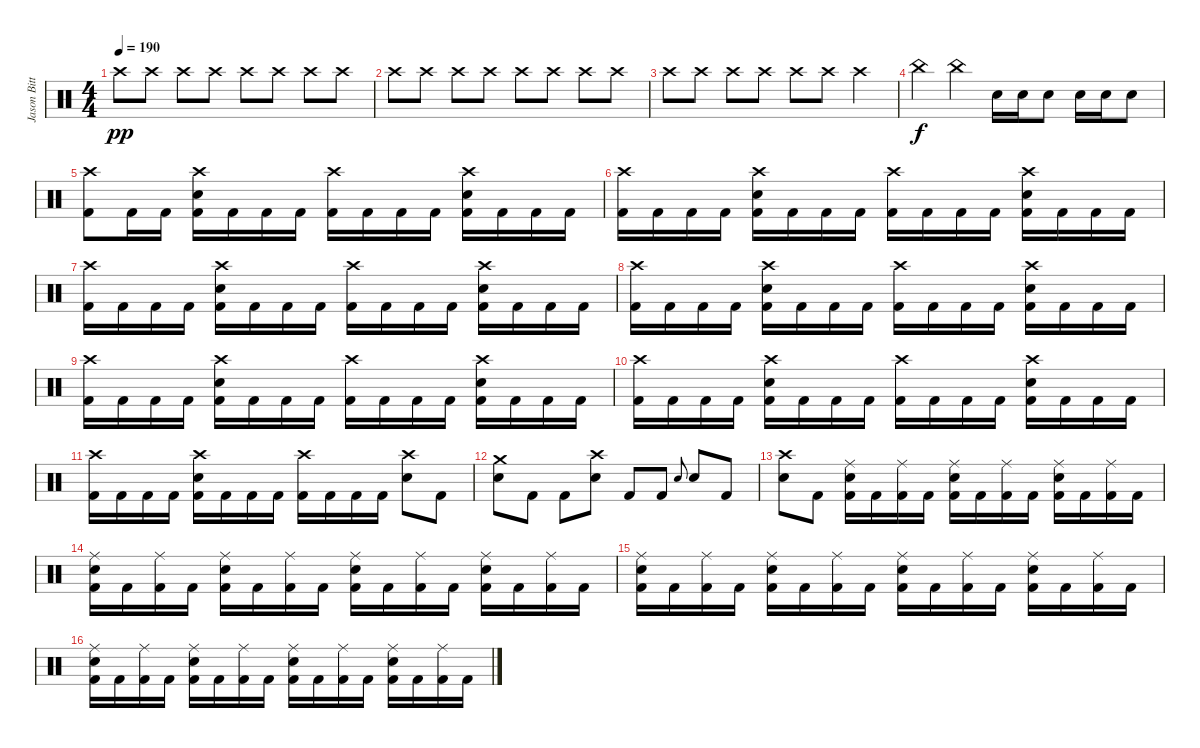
\track ("Jason Bittner" "Jason Bitt") {instrument percussion}
\staff {score}
\articulation defaults
\ts (4 4)
\tempo 190
\clef neutral
\ks c "Crash high (hit)".8{dy pp} "Crash high (hit)".8 "Crash high (hit)".8 "Crash high (hit)".8 "Crash high (hit)".8 "Crash high (hit)".8 "Crash high (hit)".8 "Crash high (hit)".8
|
"Crash high (hit)".8 "Crash high (hit)".8 "Crash high (hit)".8 "Crash high (hit)".8 "Crash high (hit)".8 "Crash high (hit)".8 "Crash high (hit)".8 "Crash high (hit)".8 |
"Crash high (hit)".8 "Crash high (hit)".8 "Crash high (hit)".8 "Crash high (hit)".8 "Crash high (hit)".8 "Crash high (hit)".8 "Crash high (hit)".4 |
"China (hit)".4{dy f} "China (hit)".4 "Electric Snare (hit)".16 "Electric Snare (hit)".16 "Electric Snare (hit)".8 "Electric Snare (hit)".16 "Electric Snare (hit)".16 "Electric Snare (hit)".8 |
("Crash high (hit)" "Kick (hit) 2").8 "Kick (hit) 2".16 "Kick (hit) 2".16 ("Crash high (hit)" "Electric Snare (hit)" "Kick (hit) 2").16 "Kick (hit) 2".16 "Kick (hit) 2".16 "Kick (hit) 2".16 ("Crash high (hit)" "Kick (hit) 2").16 "Kick (hit) 2".16 "Kick (hit) 2".16 "Kick (hit) 2".16 ("Crash high (hit)" "Electric Snare (hit)" "Kick (hit) 2").16 "Kick (hit) 2".16 "Kick (hit) 2".16 "Kick (hit) 2".16 |
("Crash high (hit)" "Kick (hit) 2").16 "Kick (hit) 2".16 "Kick (hit) 2".16 "Kick (hit) 2".16 ("Crash high (hit)" "Electric Snare (hit)" "Kick (hit) 2").16 "Kick (hit) 2".16 "Kick (hit) 2".16 "Kick (hit) 2".16 ("Crash high (hit)" "Kick (hit) 2").16 "Kick (hit) 2".16 "Kick (hit) 2".16 "Kick (hit) 2".16 ("Crash high (hit)" "Electric Snare (hit)" "Kick (hit) 2").16 "Kick (hit) 2".16 "Kick (hit) 2".16 "Kick (hit) 2".16 |
("Crash high (hit)" "Kick (hit) 2").16 "Kick (hit) 2".16 "Kick (hit) 2".16 "Kick (hit) 2".16 ("Crash high (hit)" "Electric Snare (hit)" "Kick (hit) 2").16 "Kick (hit) 2".16 "Kick (hit) 2".16 "Kick (hit) 2".16 ("Crash high (hit)" "Kick (hit) 2").16 "Kick (hit) 2".16 "Kick (hit) 2".16 "Kick (hit) 2".16 ("Crash high (hit)" "Electric Snare (hit)" "Kick (hit) 2").16 "Kick (hit) 2".16 "Kick (hit) 2".16 "Kick (hit) 2".16 |
("Crash high (hit)" "Kick (hit) 2").16 "Kick (hit) 2".16 "Kick (hit) 2".16 "Kick (hit) 2".16 ("Crash high (hit)" "Electric Snare (hit)" "Kick (hit) 2").16 "Kick (hit) 2".16 "Kick (hit) 2".16 "Kick (hit) 2".16 ("Crash high (hit)" "Kick (hit) 2").16 "Kick (hit) 2".16 "Kick (hit) 2".16 "Kick (hit) 2".16 ("Crash high (hit)" "Electric Snare (hit)" "Kick (hit) 2").16 "Kick (hit) 2".16 "Kick (hit) 2".16 "Kick (hit) 2".16 |
("Crash high (hit)" "Kick (hit) 2").16 "Kick (hit) 2".16 "Kick (hit) 2".16 "Kick (hit) 2".16 ("Crash high (hit)" "Electric Snare (hit)" "Kick (hit) 2").16 "Kick (hit) 2".16 "Kick (hit) 2".16 "Kick (hit) 2".16 ("Crash high (hit)" "Kick (hit) 2").16 "Kick (hit) 2".16 "Kick (hit) 2".16 "Kick (hit) 2".16 ("Crash high (hit)" "Electric Snare (hit)" "Kick (hit) 2").16 "Kick (hit) 2".16 "Kick (hit) 2".16 "Kick (hit) 2".16 |
("Crash high (hit)" "Kick (hit) 2").16 "Kick (hit) 2".16 "Kick (hit) 2".16 "Kick (hit) 2".16 ("Crash high (hit)" "Electric Snare (hit)" "Kick (hit) 2").16 "Kick (hit) 2".16 "Kick (hit) 2".16 "Kick (hit) 2".16 ("Crash high (hit)" "Kick (hit) 2").16 "Kick (hit) 2".16 "Kick (hit) 2".16 "Kick (hit) 2".16 ("Crash high (hit)" "Electric Snare (hit)" "Kick (hit) 2").16 "Kick (hit) 2".16 "Kick (hit) 2".16 "Kick (hit) 2".16 |
("Crash high (hit)" "Kick (hit) 2").16 "Kick (hit) 2".16 "Kick (hit) 2".16 "Kick (hit) 2".16 ("Crash high (hit)" "Electric Snare (hit)" "Kick (hit) 2").16 "Kick (hit) 2".16 "Kick (hit) 2".16 "Kick (hit) 2".16 ("Crash high (hit)" "Kick (hit) 2").16 "Kick (hit) 2".16 "Kick (hit) 2".16 "Kick (hit) 2".16 ("Crash high (hit)" "Electric Snare (hit)").8 "Kick (hit) 2".8 |
("Crash medium (hit)" "Electric Snare (hit)").8 "Kick (hit) 2".8 "Kick (hit) 2".8 ("Crash high (hit)" "Electric Snare (hit)").8 "Kick (hit) 2".8 "Kick (hit) 2".8 "Electric Snare (hit)".8{gr onbeat} "Electric Snare (hit)".8 "Kick (hit) 2".8 |
("Crash high (hit)" "Electric Snare (hit)").8 "Kick (hit) 2".8 ("Ride (middle)" "Electric Snare (hit)" "Kick (hit) 2").16 "Kick (hit) 2".16 ("Ride (middle)" "Kick (hit) 2").16 "Kick (hit) 2".16 ("Ride (middle)" "Electric Snare (hit)" "Kick (hit) 2").16 "Kick (hit) 2".16 ("Ride (middle)" "Kick (hit) 2").16 "Kick (hit) 2".16 ("Ride (middle)" "Electric Snare (hit)" "Kick (hit) 2").16 "Kick (hit) 2".16 ("Ride (middle)" "Kick (hit) 2").16 "Kick (hit) 2".16 |
("Ride (middle)" "Electric Snare (hit)" "Kick (hit) 2").16 "Kick (hit) 2".16 ("Ride (middle)" "Kick (hit) 2").16 "Kick (hit) 2".16 ("Ride (middle)" "Electric Snare (hit)" "Kick (hit) 2").16 "Kick (hit) 2".16 ("Ride (middle)" "Kick (hit) 2").16 "Kick (hit) 2".16 ("Ride (middle)" "Electric Snare (hit)" "Kick (hit) 2").16 "Kick (hit) 2".16 ("Ride (middle)" "Kick (hit) 2").16 "Kick (hit) 2".16 ("Ride (middle)" "Electric Snare (hit)" "Kick (hit) 2").16 "Kick (hit) 2".16 ("Ride (middle)" "Kick (hit) 2").16 "Kick (hit) 2".16 |
("Ride (middle)" "Electric Snare (hit)" "Kick (hit) 2").16 "Kick (hit) 2".16 ("Ride (middle)" "Kick (hit) 2").16 "Kick (hit) 2".16 ("Ride (middle)" "Electric Snare (hit)" "Kick (hit) 2").16 "Kick (hit) 2".16 ("Ride (middle)" "Kick (hit) 2").16 "Kick (hit) 2".16 ("Ride (middle)" "Electric Snare (hit)" "Kick (hit) 2").16 "Kick (hit) 2".16 ("Ride (middle)" "Kick (hit) 2").16 "Kick (hit) 2".16 ("Ride (middle)" "Electric Snare (hit)" "Kick (hit) 2").16 "Kick (hit) 2".16 ("Ride (middle)" "Kick (hit) 2").16 "Kick (hit) 2".16 |
("Ride (middle)" "Electric Snare (hit)" "Kick (hit) 2").16 "Kick (hit) 2".16 ("Ride (middle)" "Kick (hit) 2").16 "Kick (hit) 2".16 ("Ride (middle)" "Electric Snare (hit)" "Kick (hit) 2").16 "Kick (hit) 2".16 ("Ride (middle)" "Kick (hit) 2").16 "Kick (hit) 2".16 ("Ride (middle)" "Electric Snare (hit)" "Kick (hit) 2").16 "Kick (hit) 2".16 ("Ride (middle)" "Kick (hit) 2").16 "Kick (hit) 2".16 ("Ride (middle)" "Electric Snare (hit)" "Kick (hit) 2").16 "Kick (hit) 2".16 ("Ride (middle)" "Kick (hit) 2").16 "Kick (hit) 2".16
